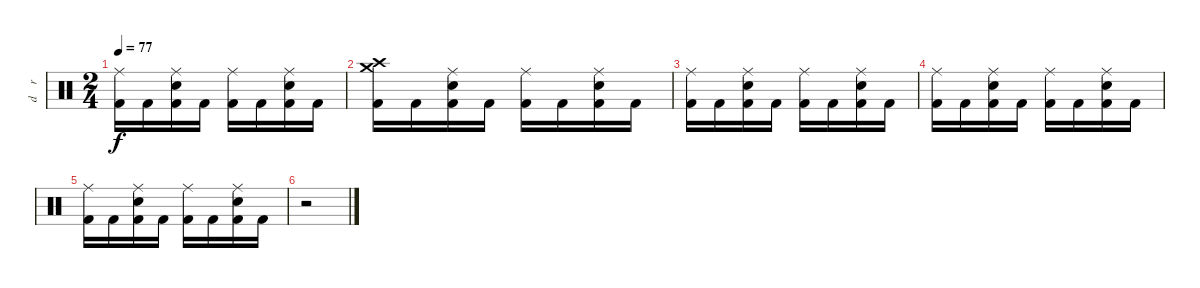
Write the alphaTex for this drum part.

\track ("d    r     u    m    s" "d    r    ") {instrument percussion}
\staff {score}
\articulation defaults
\ts (2 4)
\tempo 77
\clef neutral
\ks c
("Ride (middle)" "Kick (hit) 2").16{dy f} "Kick (hit) 2".16 ("Ride (middle)" "Electric Snare (hit)" "Kick (hit) 2").16 "Kick (hit) 2".16 ("Ride (middle)" "Kick (hit) 2").16 "Kick (hit) 2".16 ("Ride (middle)" "Electric Snare (hit)" "Kick (hit) 2").16 "Kick (hit) 2".16 |
("Crash high (hit)" "Crash medium (hit)" "Kick (hit) 2").16 "Kick (hit) 2".16 ("Ride (middle)" "Electric Snare (hit)" "Kick (hit) 2").16 "Kick (hit) 2".16 ("Ride (middle)" "Kick (hit) 2").16 "Kick (hit) 2".16 ("Ride (middle)" "Electric Snare (hit)" "Kick (hit) 2").16 "Kick (hit) 2".16 |
("Ride (middle)" "Kick (hit) 2").16 "Kick (hit) 2".16 ("Ride (middle)" "Electric Snare (hit)" "Kick (hit) 2").16 "Kick (hit) 2".16 ("Ride (middle)" "Kick (hit) 2").16 "Kick (hit) 2".16 ("Ride (middle)" "Electric Snare (hit)" "Kick (hit) 2").16 "Kick (hit) 2".16 |
("Ride (middle)" "Kick (hit) 2").16 "Kick (hit) 2".16 ("Ride (middle)" "Electric Snare (hit)" "Kick (hit) 2").16 "Kick (hit) 2".16 ("Ride (middle)" "Kick (hit) 2").16 "Kick (hit) 2".16 ("Ride (middle)" "Electric Snare (hit)" "Kick (hit) 2").16 "Kick (hit) 2".16 |
("Ride (middle)" "Kick (hit) 2").16 "Kick (hit) 2".16 ("Ride (middle)" "Electric Snare (hit)" "Kick (hit) 2").16 "Kick (hit) 2".16 ("Ride (middle)" "Kick (hit) 2").16 "Kick (hit) 2".16 ("Ride (middle)" "Electric Snare (hit)" "Kick (hit) 2").16 "Kick (hit) 2".16 |
r.2
